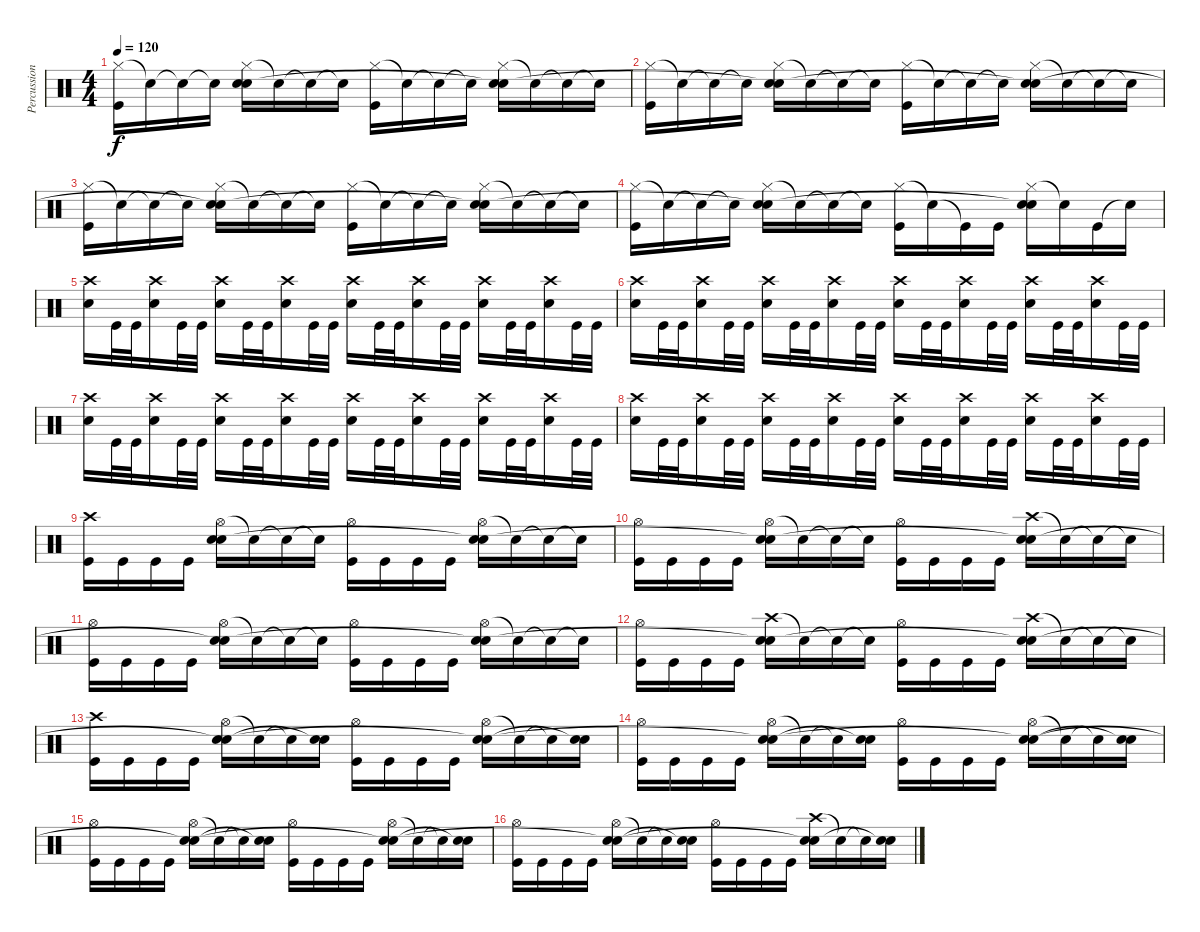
\track ("Percussion" "Percussion") {instrument percussion}
\staff {score}
\articulation defaults
\ts (4 4)
\tempo 120
\clef neutral
\ks c
("Hi-Hat (closed)" "Kick (hit)").16{dy f} "Snare (hit)"{t}.16 "Snare (hit)"{t}.16 "Snare (hit)"{t}.16 ("Hi-Hat (closed)" "Electric Snare (hit)" "Snare (hit)"{t}).16 "Snare (hit)"{t}.16 "Snare (hit)"{t}.16 "Snare (hit)"{t}.16 ("Hi-Hat (closed)" "Kick (hit)").16 "Snare (hit)"{t}.16 "Snare (hit)"{t}.16 "Snare (hit)"{t}.16 ("Hi-Hat (closed)" "Electric Snare (hit)" "Snare (hit)"{t}).16 "Snare (hit)"{t}.16 "Snare (hit)"{t}.16 "Snare (hit)"{t}.16 |
("Hi-Hat (closed)" "Kick (hit)").16 "Snare (hit)"{t}.16 "Snare (hit)"{t}.16 "Snare (hit)"{t}.16 ("Hi-Hat (closed)" "Electric Snare (hit)" "Snare (hit)"{t}).16 "Snare (hit)"{t}.16 "Snare (hit)"{t}.16 "Snare (hit)"{t}.16 ("Hi-Hat (closed)" "Kick (hit)").16 "Snare (hit)"{t}.16 "Snare (hit)"{t}.16 "Snare (hit)"{t}.16 ("Hi-Hat (closed)" "Electric Snare (hit)" "Snare (hit)"{t}).16 "Snare (hit)"{t}.16 "Snare (hit)"{t}.16 "Snare (hit)"{t}.16 |
("Hi-Hat (closed)" "Kick (hit)").16 "Snare (hit)"{t}.16 "Snare (hit)"{t}.16 "Snare (hit)"{t}.16 ("Hi-Hat (closed)" "Electric Snare (hit)" "Snare (hit)"{t}).16 "Snare (hit)"{t}.16 "Snare (hit)"{t}.16 "Snare (hit)"{t}.16 ("Hi-Hat (closed)" "Kick (hit)").16 "Snare (hit)"{t}.16 "Snare (hit)"{t}.16 "Snare (hit)"{t}.16 ("Hi-Hat (closed)" "Electric Snare (hit)" "Snare (hit)"{t}).16 "Snare (hit)"{t}.16 "Snare (hit)"{t}.16 "Snare (hit)"{t}.16 |
("Hi-Hat (closed)" "Kick (hit)").16 "Snare (hit)"{t}.16 "Snare (hit)"{t}.16 "Snare (hit)"{t}.16 ("Hi-Hat (closed)" "Electric Snare (hit)" "Snare (hit)"{t}).16 "Snare (hit)"{t}.16 "Snare (hit)"{t}.16 "Snare (hit)"{t}.16 ("Hi-Hat (closed)" "Kick (hit)").16 "Snare (hit)"{t}.16 "Kick (hit)"{t}.16 "Kick (hit)".16 ("Hi-Hat (closed)" "Electric Snare (hit)" "Snare (hit)"{t}).16 "Snare (hit)"{t}.16 "Kick (hit)".16 "Snare (hit)"{t}.16 |
("Crash high (hit)" "Electric Snare (hit)").16 "Kick (hit)".32 "Kick (hit)".32 ("Crash high (hit)" "Electric Snare (hit)").16 "Kick (hit)".32 "Kick (hit)".32 ("Crash high (hit)" "Electric Snare (hit)").16 "Kick (hit)".32 "Kick (hit)".32 ("Crash high (hit)" "Electric Snare (hit)").16 "Kick (hit)".32 "Kick (hit)".32 ("Crash high (hit)" "Electric Snare (hit)").16 "Kick (hit)".32 "Kick (hit)".32 ("Crash high (hit)" "Electric Snare (hit)").16 "Kick (hit)".32 "Kick (hit)".32 ("Crash high (hit)" "Electric Snare (hit)").16 "Kick (hit)".32 "Kick (hit)".32 ("Crash high (hit)" "Electric Snare (hit)").16 "Kick (hit)".32 "Kick (hit)".32 |
("Crash high (hit)" "Electric Snare (hit)").16 "Kick (hit)".32 "Kick (hit)".32 ("Crash high (hit)" "Electric Snare (hit)").16 "Kick (hit)".32 "Kick (hit)".32 ("Crash high (hit)" "Electric Snare (hit)").16 "Kick (hit)".32 "Kick (hit)".32 ("Crash high (hit)" "Electric Snare (hit)").16 "Kick (hit)".32 "Kick (hit)".32 ("Crash high (hit)" "Electric Snare (hit)").16 "Kick (hit)".32 "Kick (hit)".32 ("Crash high (hit)" "Electric Snare (hit)").16 "Kick (hit)".32 "Kick (hit)".32 ("Crash high (hit)" "Electric Snare (hit)").16 "Kick (hit)".32 "Kick (hit)".32 ("Crash high (hit)" "Electric Snare (hit)").16 "Kick (hit)".32 "Kick (hit)".32 |
("Crash high (hit)" "Electric Snare (hit)").16 "Kick (hit)".32 "Kick (hit)".32 ("Crash high (hit)" "Electric Snare (hit)").16 "Kick (hit)".32 "Kick (hit)".32 ("Crash high (hit)" "Electric Snare (hit)").16 "Kick (hit)".32 "Kick (hit)".32 ("Crash high (hit)" "Electric Snare (hit)").16 "Kick (hit)".32 "Kick (hit)".32 ("Crash high (hit)" "Electric Snare (hit)").16 "Kick (hit)".32 "Kick (hit)".32 ("Crash high (hit)" "Electric Snare (hit)").16 "Kick (hit)".32 "Kick (hit)".32 ("Crash high (hit)" "Electric Snare (hit)").16 "Kick (hit)".32 "Kick (hit)".32 ("Crash high (hit)" "Electric Snare (hit)").16 "Kick (hit)".32 "Kick (hit)".32 |
("Crash high (hit)" "Electric Snare (hit)").16 "Kick (hit)".32 "Kick (hit)".32 ("Crash high (hit)" "Electric Snare (hit)").16 "Kick (hit)".32 "Kick (hit)".32 ("Crash high (hit)" "Electric Snare (hit)").16 "Kick (hit)".32 "Kick (hit)".32 ("Crash high (hit)" "Electric Snare (hit)").16 "Kick (hit)".32 "Kick (hit)".32 ("Crash high (hit)" "Electric Snare (hit)").16 "Kick (hit)".32 "Kick (hit)".32 ("Crash high (hit)" "Electric Snare (hit)").16 "Kick (hit)".32 "Kick (hit)".32 ("Crash high (hit)" "Electric Snare (hit)").16 "Kick (hit)".32 "Kick (hit)".32 ("Crash high (hit)" "Electric Snare (hit)").16 "Kick (hit)".32 "Kick (hit)".32 |
("Crash high (hit)" "Kick (hit)").16 "Kick (hit)".16 "Kick (hit)".16 "Kick (hit)".16 ("Hi-Hat (open)" "Electric Snare (hit)" "Snare (hit)").16 "Snare (hit)"{t}.16 "Snare (hit)"{t}.16 "Snare (hit)"{t}.16 ("Hi-Hat (open)" "Kick (hit)").16 "Kick (hit)".16 "Kick (hit)".16 "Kick (hit)".16 ("Hi-Hat (open)" "Electric Snare (hit)" "Snare (hit)"{t}).16 "Snare (hit)"{t}.16 "Snare (hit)"{t}.16 "Snare (hit)"{t}.16 |
("Hi-Hat (open)" "Kick (hit)").16 "Kick (hit)".16 "Kick (hit)".16 "Kick (hit)".16 ("Hi-Hat (open)" "Electric Snare (hit)" "Snare (hit)"{t}).16 "Snare (hit)"{t}.16 "Snare (hit)"{t}.16 "Snare (hit)"{t}.16 ("Hi-Hat (open)" "Kick (hit)").16 "Kick (hit)".16 "Kick (hit)".16 "Kick (hit)".16 ("Crash high (hit)" "Electric Snare (hit)" "Snare (hit)"{t}).16 "Snare (hit)"{t}.16 "Snare (hit)"{t}.16 "Snare (hit)"{t}.16 |
("Hi-Hat (open)" "Kick (hit)").16 "Kick (hit)".16 "Kick (hit)".16 "Kick (hit)".16 ("Hi-Hat (open)" "Electric Snare (hit)" "Snare (hit)"{t}).16 "Snare (hit)"{t}.16 "Snare (hit)"{t}.16 "Snare (hit)"{t}.16 ("Hi-Hat (open)" "Kick (hit)").16 "Kick (hit)".16 "Kick (hit)".16 "Kick (hit)".16 ("Hi-Hat (open)" "Electric Snare (hit)" "Snare (hit)"{t}).16 "Snare (hit)"{t}.16 "Snare (hit)"{t}.16 "Snare (hit)"{t}.16 |
("Hi-Hat (open)" "Kick (hit)").16 "Kick (hit)".16 "Kick (hit)".16 "Kick (hit)".16 ("Crash high (hit)" "Electric Snare (hit)" "Snare (hit)"{t}).16 "Snare (hit)"{t}.16 "Snare (hit)"{t}.16 "Snare (hit)"{t}.16 ("Hi-Hat (open)" "Kick (hit)").16 "Kick (hit)".16 "Kick (hit)".16 "Kick (hit)".16 ("Crash high (hit)" "Electric Snare (hit)" "Snare (hit)"{t}).16 "Snare (hit)"{t}.16 "Snare (hit)"{t}.16 "Snare (hit)"{t}.16 |
("Crash high (hit)" "Kick (hit)").16 "Kick (hit)".16 "Kick (hit)".16 "Kick (hit)".16 ("Hi-Hat (open)" "Electric Snare (hit)" "Snare (hit)"{t}).16 "Snare (hit)"{t}.16 "Snare (hit)"{t}.16 ("Electric Snare (hit)" "Snare (hit)"{t}).16 ("Hi-Hat (open)" "Kick (hit)").16 "Kick (hit)".16 "Kick (hit)".16 "Kick (hit)".16 ("Hi-Hat (open)" "Electric Snare (hit)" "Snare (hit)"{t}).16 "Snare (hit)"{t}.16 "Snare (hit)"{t}.16 ("Electric Snare (hit)" "Snare (hit)"{t}).16 |
("Hi-Hat (open)" "Kick (hit)").16 "Kick (hit)".16 "Kick (hit)".16 "Kick (hit)".16 ("Hi-Hat (open)" "Electric Snare (hit)" "Snare (hit)"{t}).16 "Snare (hit)"{t}.16 "Snare (hit)"{t}.16 ("Electric Snare (hit)" "Snare (hit)"{t}).16 ("Hi-Hat (open)" "Kick (hit)").16 "Kick (hit)".16 "Kick (hit)".16 "Kick (hit)".16 ("Hi-Hat (open)" "Electric Snare (hit)" "Snare (hit)"{t}).16 "Snare (hit)"{t}.16 "Snare (hit)"{t}.16 ("Electric Snare (hit)" "Snare (hit)"{t}).16 |
("Hi-Hat (open)" "Kick (hit)").16 "Kick (hit)".16 "Kick (hit)".16 "Kick (hit)".16 ("Hi-Hat (open)" "Electric Snare (hit)" "Snare (hit)"{t}).16 "Snare (hit)"{t}.16 "Snare (hit)"{t}.16 ("Electric Snare (hit)" "Snare (hit)"{t}).16 ("Hi-Hat (open)" "Kick (hit)").16 "Kick (hit)".16 "Kick (hit)".16 "Kick (hit)".16 ("Hi-Hat (open)" "Electric Snare (hit)" "Snare (hit)"{t}).16 "Snare (hit)"{t}.16 "Snare (hit)"{t}.16 ("Electric Snare (hit)" "Snare (hit)"{t}).16 |
("Hi-Hat (open)" "Kick (hit)").16 "Kick (hit)".16 "Kick (hit)".16 "Kick (hit)".16 ("Hi-Hat (open)" "Electric Snare (hit)" "Snare (hit)"{t}).16 "Snare (hit)"{t}.16 "Snare (hit)"{t}.16 ("Electric Snare (hit)" "Snare (hit)"{t}).16 ("Hi-Hat (open)" "Kick (hit)").16 "Kick (hit)".16 "Kick (hit)".16 "Kick (hit)".16 ("Crash high (hit)" "Electric Snare (hit)" "Snare (hit)"{t}).16 "Snare (hit)"{t}.16 "Snare (hit)"{t}.16 ("Electric Snare (hit)" "Snare (hit)"{t}).16
